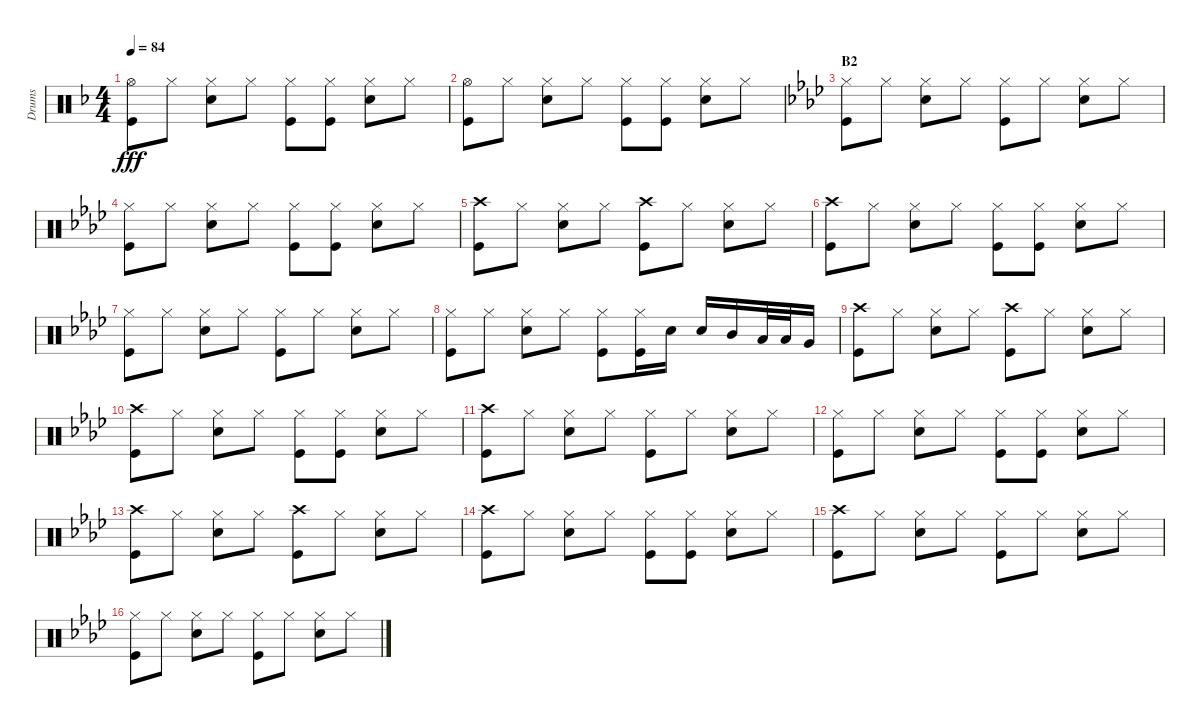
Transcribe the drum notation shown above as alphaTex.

\track ("Drums" "Drums") {instrument percussion}
\staff {score}
\articulation defaults
\ts (4 4)
\tempo 84
\clef neutral
\ks f
("Hi-Hat (open)" "Kick (hit)").8{dy fff} "Hi-Hat (closed)".8 ("Hi-Hat (closed)" "Snare (hit) 2").8 "Hi-Hat (closed)".8 ("Hi-Hat (closed)" "Kick (hit)").8 ("Hi-Hat (closed)" "Kick (hit)").8 ("Hi-Hat (closed)" "Snare (hit) 2").8 "Hi-Hat (closed)".8 |
("Hi-Hat (open)" "Kick (hit)").8 "Hi-Hat (closed)".8 ("Hi-Hat (closed)" "Snare (hit) 2").8 "Hi-Hat (closed)".8 ("Hi-Hat (closed)" "Kick (hit)").8 ("Hi-Hat (closed)" "Kick (hit)").8 ("Hi-Hat (closed)" "Snare (hit) 2").8 "Hi-Hat (closed)".8 |
\section ("" "B2")
\ks ab
("Hi-Hat (closed)" "Kick (hit)").8 "Hi-Hat (closed)".8 ("Hi-Hat (closed)" "Snare (hit) 2").8 "Hi-Hat (closed)".8 ("Hi-Hat (closed)" "Kick (hit)").8 "Hi-Hat (closed)".8 ("Hi-Hat (closed)" "Snare (hit) 2").8 "Hi-Hat (closed)".8 |
("Hi-Hat (closed)" "Kick (hit)").8 "Hi-Hat (closed)".8 ("Hi-Hat (closed)" "Snare (hit) 2").8 "Hi-Hat (closed)".8 ("Hi-Hat (closed)" "Kick (hit)").8 ("Hi-Hat (closed)" "Kick (hit)").8 ("Hi-Hat (closed)" "Snare (hit) 2").8 "Hi-Hat (closed)".8 |
("Crash high (hit)" "Kick (hit)").8 "Hi-Hat (closed)".8 ("Hi-Hat (closed)" "Snare (hit) 2").8 "Hi-Hat (closed)".8 ("Crash high (hit)" "Kick (hit)").8 "Hi-Hat (closed)".8 ("Hi-Hat (closed)" "Snare (hit) 2").8 "Hi-Hat (closed)".8 |
("Crash high (hit)" "Kick (hit)").8 "Hi-Hat (closed)".8 ("Hi-Hat (closed)" "Snare (hit) 2").8 "Hi-Hat (closed)".8 ("Hi-Hat (closed)" "Kick (hit)").8 ("Hi-Hat (closed)" "Kick (hit)").8 ("Hi-Hat (closed)" "Snare (hit) 2").8 "Hi-Hat (closed)".8 |
("Hi-Hat (closed)" "Kick (hit)").8 "Hi-Hat (closed)".8 ("Hi-Hat (closed)" "Snare (hit) 2").8 "Hi-Hat (closed)".8 ("Hi-Hat (closed)" "Kick (hit)").8 "Hi-Hat (closed)".8 ("Hi-Hat (closed)" "Snare (hit) 2").8 "Hi-Hat (closed)".8 |
("Hi-Hat (closed)" "Kick (hit)").8 "Hi-Hat (closed)".8 ("Hi-Hat (closed)" "Snare (hit) 2").8 "Hi-Hat (closed)".8 ("Hi-Hat (closed)" "Kick (hit)").8 ("Hi-Hat (closed)" "Kick (hit)").16 "Snare (hit) 2".16 "Snare (hit) 2".16 "Mid Tom (hit)".16 "Low Tom (hit)".32 "Low Tom (hit)".32 "Very Low Tom (hit)".16 |
("Crash high (hit)" "Kick (hit)").8 "Hi-Hat (closed)".8 ("Hi-Hat (closed)" "Snare (hit) 2").8 "Hi-Hat (closed)".8 ("Crash high (hit)" "Kick (hit)").8 "Hi-Hat (closed)".8 ("Hi-Hat (closed)" "Snare (hit) 2").8 "Hi-Hat (closed)".8 |
("Crash high (hit)" "Kick (hit)").8 "Hi-Hat (closed)".8 ("Hi-Hat (closed)" "Snare (hit) 2").8 "Hi-Hat (closed)".8 ("Hi-Hat (closed)" "Kick (hit)").8 ("Hi-Hat (closed)" "Kick (hit)").8 ("Hi-Hat (closed)" "Snare (hit) 2").8 "Hi-Hat (closed)".8 |
("Crash high (hit)" "Kick (hit)").8 "Hi-Hat (closed)".8 ("Hi-Hat (closed)" "Snare (hit) 2").8 "Hi-Hat (closed)".8 ("Hi-Hat (closed)" "Kick (hit)").8 "Hi-Hat (closed)".8 ("Hi-Hat (closed)" "Snare (hit) 2").8 "Hi-Hat (closed)".8 |
("Hi-Hat (closed)" "Kick (hit)").8 "Hi-Hat (closed)".8 ("Hi-Hat (closed)" "Snare (hit) 2").8 "Hi-Hat (closed)".8 ("Hi-Hat (closed)" "Kick (hit)").8 ("Hi-Hat (closed)" "Kick (hit)").8 ("Hi-Hat (closed)" "Snare (hit) 2").8 "Hi-Hat (closed)".8 |
("Crash high (hit)" "Kick (hit)").8 "Hi-Hat (closed)".8 ("Hi-Hat (closed)" "Snare (hit) 2").8 "Hi-Hat (closed)".8 ("Crash high (hit)" "Kick (hit)").8 "Hi-Hat (closed)".8 ("Hi-Hat (closed)" "Snare (hit) 2").8 "Hi-Hat (closed)".8 |
("Crash high (hit)" "Kick (hit)").8 "Hi-Hat (closed)".8 ("Hi-Hat (closed)" "Snare (hit) 2").8 "Hi-Hat (closed)".8 ("Hi-Hat (closed)" "Kick (hit)").8 ("Hi-Hat (closed)" "Kick (hit)").8 ("Hi-Hat (closed)" "Snare (hit) 2").8 "Hi-Hat (closed)".8 |
("Crash high (hit)" "Kick (hit)").8 "Hi-Hat (closed)".8 ("Hi-Hat (closed)" "Snare (hit) 2").8 "Hi-Hat (closed)".8 ("Hi-Hat (closed)" "Kick (hit)").8 "Hi-Hat (closed)".8 ("Hi-Hat (closed)" "Snare (hit) 2").8 "Hi-Hat (closed)".8 |
("Hi-Hat (closed)" "Kick (hit)").8 "Hi-Hat (closed)".8 ("Hi-Hat (closed)" "Snare (hit) 2").8 "Hi-Hat (closed)".8 ("Hi-Hat (closed)" "Kick (hit)").8 "Hi-Hat (closed)".8 ("Hi-Hat (closed)" "Snare (hit) 2").8 "Hi-Hat (closed)".8
